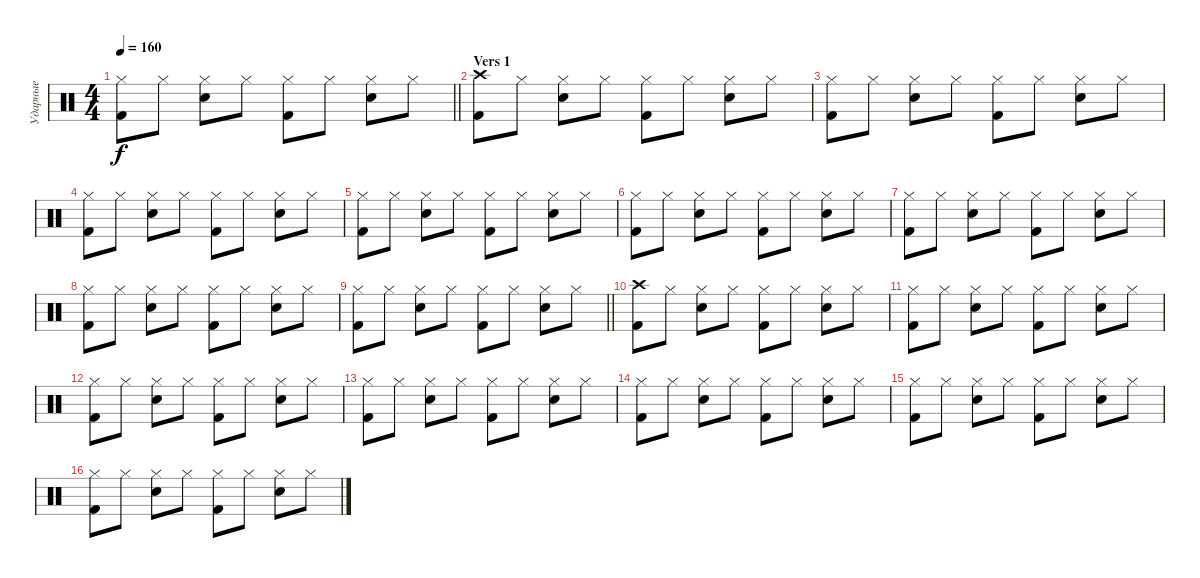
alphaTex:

\track ("Ударные" "Ударные") {instrument percussion}
\staff {score}
\articulation defaults
\ts (4 4)
\tempo 160
\clef neutral
\barLineRight lightlight
\ks c
("Hi-Hat (closed)" "Kick (hit) 2").8{dy f} "Hi-Hat (closed)".8 ("Hi-Hat (closed)" "Snare (hit) 2").8 "Hi-Hat (closed)".8 ("Hi-Hat (closed)" "Kick (hit) 2").8 "Hi-Hat (closed)".8 ("Hi-Hat (closed)" "Snare (hit) 2").8 "Hi-Hat (closed)".8 |
\section ("" "Vers 1")
("Crash high (hit)" "Kick (hit) 2").8 "Hi-Hat (closed)".8 ("Hi-Hat (closed)" "Snare (hit) 2").8 "Hi-Hat (closed)".8 ("Hi-Hat (closed)" "Kick (hit) 2").8 "Hi-Hat (closed)".8 ("Hi-Hat (closed)" "Snare (hit) 2").8 "Hi-Hat (closed)".8 |
("Hi-Hat (closed)" "Kick (hit) 2").8 "Hi-Hat (closed)".8 ("Hi-Hat (closed)" "Snare (hit) 2").8 "Hi-Hat (closed)".8 ("Hi-Hat (closed)" "Kick (hit) 2").8 "Hi-Hat (closed)".8 ("Hi-Hat (closed)" "Snare (hit) 2").8 "Hi-Hat (closed)".8 |
("Hi-Hat (closed)" "Kick (hit) 2").8 "Hi-Hat (closed)".8 ("Hi-Hat (closed)" "Snare (hit) 2").8 "Hi-Hat (closed)".8 ("Hi-Hat (closed)" "Kick (hit) 2").8 "Hi-Hat (closed)".8 ("Hi-Hat (closed)" "Snare (hit) 2").8 "Hi-Hat (closed)".8 |
("Hi-Hat (closed)" "Kick (hit) 2").8 "Hi-Hat (closed)".8 ("Hi-Hat (closed)" "Snare (hit) 2").8 "Hi-Hat (closed)".8 ("Hi-Hat (closed)" "Kick (hit) 2").8 "Hi-Hat (closed)".8 ("Hi-Hat (closed)" "Snare (hit) 2").8 "Hi-Hat (closed)".8 |
("Hi-Hat (closed)" "Kick (hit) 2").8 "Hi-Hat (closed)".8 ("Hi-Hat (closed)" "Snare (hit) 2").8 "Hi-Hat (closed)".8 ("Hi-Hat (closed)" "Kick (hit) 2").8 "Hi-Hat (closed)".8 ("Hi-Hat (closed)" "Snare (hit) 2").8 "Hi-Hat (closed)".8 |
("Hi-Hat (closed)" "Kick (hit) 2").8 "Hi-Hat (closed)".8 ("Hi-Hat (closed)" "Snare (hit) 2").8 "Hi-Hat (closed)".8 ("Hi-Hat (closed)" "Kick (hit) 2").8 "Hi-Hat (closed)".8 ("Hi-Hat (closed)" "Snare (hit) 2").8 "Hi-Hat (closed)".8 |
("Hi-Hat (closed)" "Kick (hit) 2").8 "Hi-Hat (closed)".8 ("Hi-Hat (closed)" "Snare (hit) 2").8 "Hi-Hat (closed)".8 ("Hi-Hat (closed)" "Kick (hit) 2").8 "Hi-Hat (closed)".8 ("Hi-Hat (closed)" "Snare (hit) 2").8 "Hi-Hat (closed)".8 |
\barLineRight lightlight
("Hi-Hat (closed)" "Kick (hit) 2").8 "Hi-Hat (closed)".8 ("Hi-Hat (closed)" "Snare (hit) 2").8 "Hi-Hat (closed)".8 ("Hi-Hat (closed)" "Kick (hit) 2").8 "Hi-Hat (closed)".8 ("Hi-Hat (closed)" "Snare (hit) 2").8 "Hi-Hat (closed)".8 |
("Crash high (hit)" "Kick (hit) 2").8 "Hi-Hat (closed)".8 ("Hi-Hat (closed)" "Snare (hit) 2").8 "Hi-Hat (closed)".8 ("Hi-Hat (closed)" "Kick (hit) 2").8 "Hi-Hat (closed)".8 ("Hi-Hat (closed)" "Snare (hit) 2").8 "Hi-Hat (closed)".8 |
("Hi-Hat (closed)" "Kick (hit) 2").8 "Hi-Hat (closed)".8 ("Hi-Hat (closed)" "Snare (hit) 2").8 "Hi-Hat (closed)".8 ("Hi-Hat (closed)" "Kick (hit) 2").8 "Hi-Hat (closed)".8 ("Hi-Hat (closed)" "Snare (hit) 2").8 "Hi-Hat (closed)".8 |
("Hi-Hat (closed)" "Kick (hit) 2").8 "Hi-Hat (closed)".8 ("Hi-Hat (closed)" "Snare (hit) 2").8 "Hi-Hat (closed)".8 ("Hi-Hat (closed)" "Kick (hit) 2").8 "Hi-Hat (closed)".8 ("Hi-Hat (closed)" "Snare (hit) 2").8 "Hi-Hat (closed)".8 |
("Hi-Hat (closed)" "Kick (hit) 2").8 "Hi-Hat (closed)".8 ("Hi-Hat (closed)" "Snare (hit) 2").8 "Hi-Hat (closed)".8 ("Hi-Hat (closed)" "Kick (hit) 2").8 "Hi-Hat (closed)".8 ("Hi-Hat (closed)" "Snare (hit) 2").8 "Hi-Hat (closed)".8 |
("Hi-Hat (closed)" "Kick (hit) 2").8 "Hi-Hat (closed)".8 ("Hi-Hat (closed)" "Snare (hit) 2").8 "Hi-Hat (closed)".8 ("Hi-Hat (closed)" "Kick (hit) 2").8 "Hi-Hat (closed)".8 ("Hi-Hat (closed)" "Snare (hit) 2").8 "Hi-Hat (closed)".8 |
("Hi-Hat (closed)" "Kick (hit) 2").8 "Hi-Hat (closed)".8 ("Hi-Hat (closed)" "Snare (hit) 2").8 "Hi-Hat (closed)".8 ("Hi-Hat (closed)" "Kick (hit) 2").8 "Hi-Hat (closed)".8 ("Hi-Hat (closed)" "Snare (hit) 2").8 "Hi-Hat (closed)".8 |
("Hi-Hat (closed)" "Kick (hit) 2").8 "Hi-Hat (closed)".8 ("Hi-Hat (closed)" "Snare (hit) 2").8 "Hi-Hat (closed)".8 ("Hi-Hat (closed)" "Kick (hit) 2").8 "Hi-Hat (closed)".8 ("Hi-Hat (closed)" "Snare (hit) 2").8 "Hi-Hat (closed)".8
